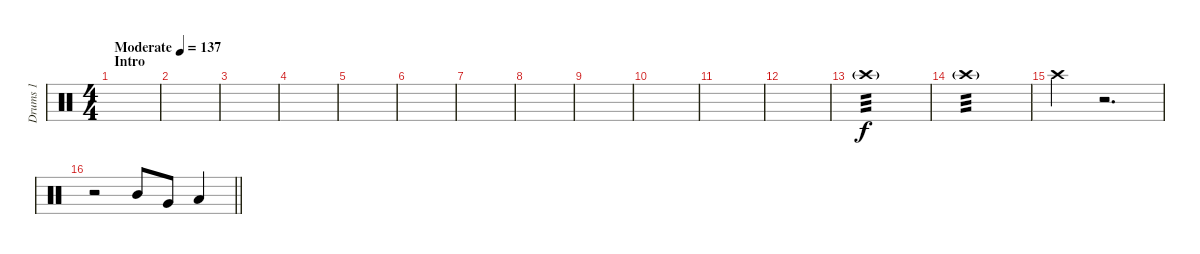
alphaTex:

\track ("Drums 1" "Drums 1") {instrument percussion}
\staff {score}
\articulation defaults
\ts (4 4)
\section ("" "Intro")
\tempo (137 "Moderate")
\clef neutral
\ks c
|
|
|
|
|
|
|
|
|
|
|
|
"Crash high (hit)"{g}.1{tp 3} |
"Crash high (hit)"{g}.1{tp 3} |
"Crash high (hit)".4{dy f} r.2{d} |
\barLineRight lightlight
r.2 "Mid Tom (hit)".8 "Very Low Tom (hit)".8 "Low Floor Tom (hit)".4
